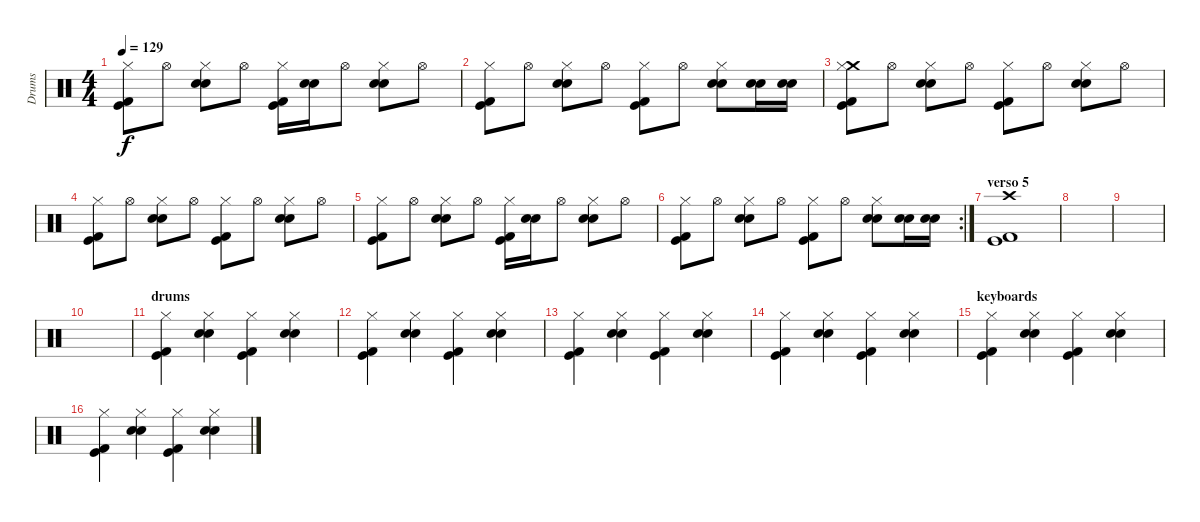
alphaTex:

\track ("Drums" "Drums") {instrument percussion}
\staff {score}
\articulation defaults
\ts (4 4)
\tempo 129
\clef neutral
\ks c
("Hi-Hat (closed)" "Kick (hit) 2" "Kick (hit)").8{dy f} "Hi-Hat (open)".8 ("Hi-Hat (closed)" "Snare (hit) 2" "Snare (hit) 2").8 "Hi-Hat (open)".8 ("Hi-Hat (closed)" "Kick (hit) 2" "Kick (hit)").16 ("Snare (hit) 2" "Snare (hit) 2").16 "Hi-Hat (open)".8 ("Hi-Hat (closed)" "Snare (hit) 2" "Snare (hit) 2").8 "Hi-Hat (open)".8 |
("Hi-Hat (closed)" "Kick (hit) 2" "Kick (hit)").8 "Hi-Hat (open)".8 ("Hi-Hat (closed)" "Snare (hit) 2" "Snare (hit) 2").8 "Hi-Hat (open)".8 ("Hi-Hat (closed)" "Kick (hit) 2" "Kick (hit)").8 "Hi-Hat (open)".8 ("Hi-Hat (closed)" "Snare (hit) 2" "Snare (hit) 2").8 ("Snare (hit) 2" "Snare (hit) 2").16 ("Snare (hit) 2" "Snare (hit) 2").16 |
("Crash medium (hit)" "Hi-Hat (closed)" "Kick (hit) 2" "Kick (hit)").8 "Hi-Hat (open)".8 ("Hi-Hat (closed)" "Snare (hit) 2" "Snare (hit) 2").8 "Hi-Hat (open)".8 ("Hi-Hat (closed)" "Kick (hit) 2" "Kick (hit)").8 "Hi-Hat (open)".8 ("Hi-Hat (closed)" "Snare (hit) 2" "Snare (hit) 2").8 "Hi-Hat (open)".8 |
("Hi-Hat (closed)" "Kick (hit) 2" "Kick (hit)").8 "Hi-Hat (open)".8 ("Hi-Hat (closed)" "Snare (hit) 2" "Snare (hit) 2").8 "Hi-Hat (open)".8 ("Hi-Hat (closed)" "Kick (hit) 2" "Kick (hit)").8 "Hi-Hat (open)".8 ("Hi-Hat (closed)" "Snare (hit) 2" "Snare (hit) 2").8 "Hi-Hat (open)".8 |
("Hi-Hat (closed)" "Kick (hit) 2" "Kick (hit)").8 "Hi-Hat (open)".8 ("Hi-Hat (closed)" "Snare (hit) 2" "Snare (hit) 2").8 "Hi-Hat (open)".8 ("Hi-Hat (closed)" "Kick (hit) 2" "Kick (hit)").16 ("Snare (hit) 2" "Snare (hit) 2").16 "Hi-Hat (open)".8 ("Hi-Hat (closed)" "Snare (hit) 2" "Snare (hit) 2").8 "Hi-Hat (open)".8 |
\rc 2
("Hi-Hat (closed)" "Kick (hit) 2" "Kick (hit)").8 "Hi-Hat (open)".8 ("Hi-Hat (closed)" "Snare (hit) 2" "Snare (hit) 2").8 "Hi-Hat (open)".8 ("Hi-Hat (closed)" "Kick (hit) 2" "Kick (hit)").8 "Hi-Hat (open)".8 ("Hi-Hat (closed)" "Snare (hit) 2" "Snare (hit) 2").8 ("Snare (hit) 2" "Snare (hit) 2").16 ("Snare (hit) 2" "Snare (hit) 2").16 |
\section ("" "verso 5")
("Crash high (hit)" "Kick (hit) 2" "Kick (hit)").1 |
|
|
|
\section ("" "drums")
("Hi-Hat (closed)" "Kick (hit) 2" "Kick (hit)").4 ("Hi-Hat (closed)" "Snare (hit) 2" "Snare (hit) 2").4 ("Hi-Hat (closed)" "Kick (hit) 2" "Kick (hit)").4 ("Hi-Hat (closed)" "Snare (hit) 2" "Snare (hit) 2").4 |
("Hi-Hat (closed)" "Kick (hit) 2" "Kick (hit)").4 ("Hi-Hat (closed)" "Snare (hit) 2" "Snare (hit) 2").4 ("Hi-Hat (closed)" "Kick (hit) 2" "Kick (hit)").4 ("Hi-Hat (closed)" "Snare (hit) 2" "Snare (hit) 2").4 |
("Hi-Hat (closed)" "Kick (hit) 2" "Kick (hit)").4 ("Hi-Hat (closed)" "Snare (hit) 2" "Snare (hit) 2").4 ("Hi-Hat (closed)" "Kick (hit) 2" "Kick (hit)").4 ("Hi-Hat (closed)" "Snare (hit) 2" "Snare (hit) 2").4 |
("Hi-Hat (closed)" "Kick (hit) 2" "Kick (hit)").4 ("Hi-Hat (closed)" "Snare (hit) 2" "Snare (hit) 2").4 ("Hi-Hat (closed)" "Kick (hit) 2" "Kick (hit)").4 ("Hi-Hat (closed)" "Snare (hit) 2" "Snare (hit) 2").4 |
\section ("" "keyboards")
("Hi-Hat (closed)" "Kick (hit) 2" "Kick (hit)").4 ("Hi-Hat (closed)" "Snare (hit) 2" "Snare (hit) 2").4 ("Hi-Hat (closed)" "Kick (hit) 2" "Kick (hit)").4 ("Hi-Hat (closed)" "Snare (hit) 2" "Snare (hit) 2").4 |
("Hi-Hat (closed)" "Kick (hit) 2" "Kick (hit)").4 ("Hi-Hat (closed)" "Snare (hit) 2" "Snare (hit) 2").4 ("Hi-Hat (closed)" "Kick (hit) 2" "Kick (hit)").4 ("Hi-Hat (closed)" "Snare (hit) 2" "Snare (hit) 2").4
